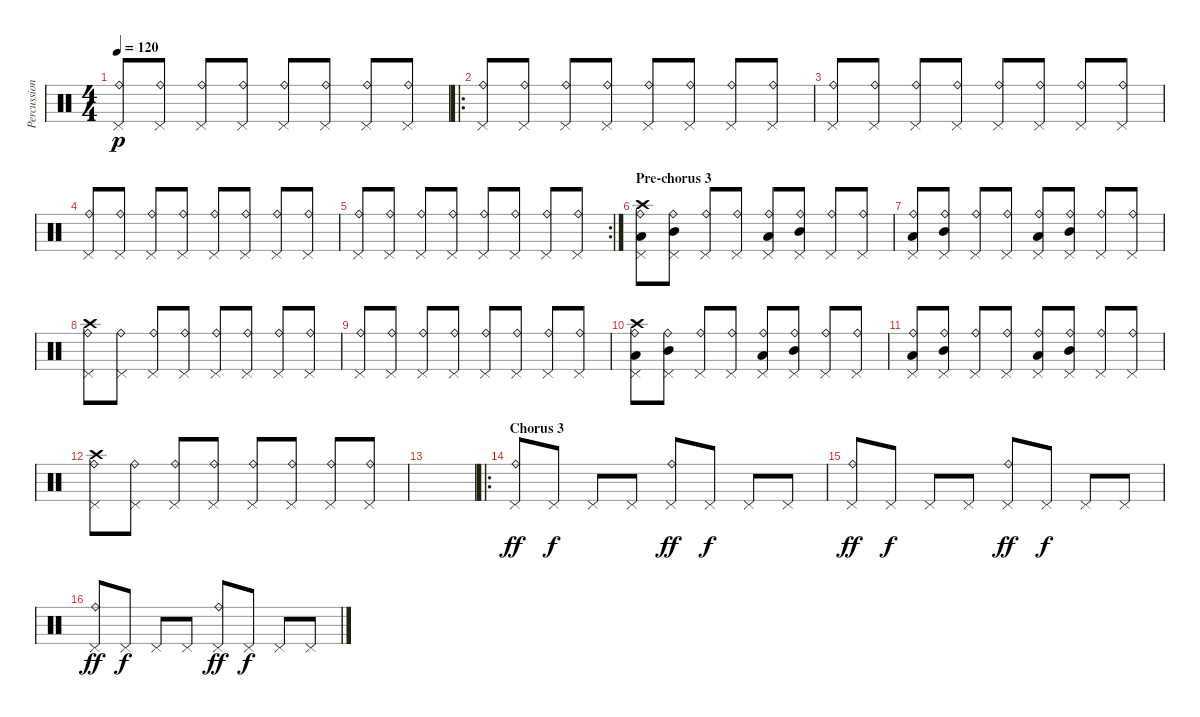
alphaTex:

\track ("Percussion 2" "Percussion") {instrument percussion}
\staff {score}
\articulation defaults
\ts (4 4)
\tempo 120
\clef neutral
\ks c
("Pedal Hi-Hat (hit)" "Ride (bell)").8{dy p} ("Pedal Hi-Hat (hit)" "Ride (bell)").8 ("Pedal Hi-Hat (hit)" "Ride (bell)").8 ("Pedal Hi-Hat (hit)" "Ride (bell)").8 ("Pedal Hi-Hat (hit)" "Ride (bell)").8 ("Pedal Hi-Hat (hit)" "Ride (bell)").8 ("Pedal Hi-Hat (hit)" "Ride (bell)").8 ("Pedal Hi-Hat (hit)" "Ride (bell)").8 |
\ro
("Pedal Hi-Hat (hit)" "Ride (bell)").8 ("Pedal Hi-Hat (hit)" "Ride (bell)").8 ("Pedal Hi-Hat (hit)" "Ride (bell)").8 ("Pedal Hi-Hat (hit)" "Ride (bell)").8 ("Pedal Hi-Hat (hit)" "Ride (bell)").8 ("Pedal Hi-Hat (hit)" "Ride (bell)").8 ("Pedal Hi-Hat (hit)" "Ride (bell)").8 ("Pedal Hi-Hat (hit)" "Ride (bell)").8 |
("Pedal Hi-Hat (hit)" "Ride (bell)").8 ("Pedal Hi-Hat (hit)" "Ride (bell)").8 ("Pedal Hi-Hat (hit)" "Ride (bell)").8 ("Pedal Hi-Hat (hit)" "Ride (bell)").8 ("Pedal Hi-Hat (hit)" "Ride (bell)").8 ("Pedal Hi-Hat (hit)" "Ride (bell)").8 ("Pedal Hi-Hat (hit)" "Ride (bell)").8 ("Pedal Hi-Hat (hit)" "Ride (bell)").8 |
("Pedal Hi-Hat (hit)" "Ride (bell)").8 ("Pedal Hi-Hat (hit)" "Ride (bell)").8 ("Pedal Hi-Hat (hit)" "Ride (bell)").8 ("Pedal Hi-Hat (hit)" "Ride (bell)").8 ("Pedal Hi-Hat (hit)" "Ride (bell)").8 ("Pedal Hi-Hat (hit)" "Ride (bell)").8 ("Pedal Hi-Hat (hit)" "Ride (bell)").8 ("Pedal Hi-Hat (hit)" "Ride (bell)").8 |
\rc 2
("Pedal Hi-Hat (hit)" "Ride (bell)").8 ("Pedal Hi-Hat (hit)" "Ride (bell)").8 ("Pedal Hi-Hat (hit)" "Ride (bell)").8 ("Pedal Hi-Hat (hit)" "Ride (bell)").8 ("Pedal Hi-Hat (hit)" "Ride (bell)").8 ("Pedal Hi-Hat (hit)" "Ride (bell)").8 ("Pedal Hi-Hat (hit)" "Ride (bell)").8 ("Pedal Hi-Hat (hit)" "Ride (bell)").8 |
\section ("" "Pre-chorus 3")
("Pedal Hi-Hat (hit)" "Ride (bell)" "Low Tom (hit)" "Crash high (hit)").8 ("Pedal Hi-Hat (hit)" "Ride (bell)" "Mid Tom (hit)").8 ("Pedal Hi-Hat (hit)" "Ride (bell)").8 ("Pedal Hi-Hat (hit)" "Ride (bell)").8 ("Pedal Hi-Hat (hit)" "Ride (bell)" "Low Tom (hit)").8 ("Pedal Hi-Hat (hit)" "Ride (bell)" "Mid Tom (hit)").8 ("Pedal Hi-Hat (hit)" "Ride (bell)").8 ("Pedal Hi-Hat (hit)" "Ride (bell)").8 |
("Pedal Hi-Hat (hit)" "Ride (bell)" "Low Tom (hit)").8 ("Pedal Hi-Hat (hit)" "Ride (bell)" "Mid Tom (hit)").8 ("Pedal Hi-Hat (hit)" "Ride (bell)").8 ("Pedal Hi-Hat (hit)" "Ride (bell)").8 ("Pedal Hi-Hat (hit)" "Ride (bell)" "Low Tom (hit)").8 ("Pedal Hi-Hat (hit)" "Ride (bell)" "Mid Tom (hit)").8 ("Pedal Hi-Hat (hit)" "Ride (bell)").8 ("Pedal Hi-Hat (hit)" "Ride (bell)").8 |
("Pedal Hi-Hat (hit)" "Ride (bell)" "Crash high (hit)").8 ("Pedal Hi-Hat (hit)" "Ride (bell)").8 ("Pedal Hi-Hat (hit)" "Ride (bell)").8 ("Pedal Hi-Hat (hit)" "Ride (bell)").8 ("Pedal Hi-Hat (hit)" "Ride (bell)").8 ("Pedal Hi-Hat (hit)" "Ride (bell)").8 ("Pedal Hi-Hat (hit)" "Ride (bell)").8 ("Pedal Hi-Hat (hit)" "Ride (bell)").8 |
("Pedal Hi-Hat (hit)" "Ride (bell)").8 ("Pedal Hi-Hat (hit)" "Ride (bell)").8 ("Pedal Hi-Hat (hit)" "Ride (bell)").8 ("Pedal Hi-Hat (hit)" "Ride (bell)").8 ("Pedal Hi-Hat (hit)" "Ride (bell)").8 ("Pedal Hi-Hat (hit)" "Ride (bell)").8 ("Pedal Hi-Hat (hit)" "Ride (bell)").8 ("Pedal Hi-Hat (hit)" "Ride (bell)").8 |
("Pedal Hi-Hat (hit)" "Ride (bell)" "Low Tom (hit)" "Crash high (hit)").8 ("Pedal Hi-Hat (hit)" "Ride (bell)" "Mid Tom (hit)").8 ("Pedal Hi-Hat (hit)" "Ride (bell)").8 ("Pedal Hi-Hat (hit)" "Ride (bell)").8 ("Pedal Hi-Hat (hit)" "Ride (bell)" "Low Tom (hit)").8 ("Pedal Hi-Hat (hit)" "Ride (bell)" "Mid Tom (hit)").8 ("Pedal Hi-Hat (hit)" "Ride (bell)").8 ("Pedal Hi-Hat (hit)" "Ride (bell)").8 |
("Pedal Hi-Hat (hit)" "Ride (bell)" "Low Tom (hit)").8 ("Pedal Hi-Hat (hit)" "Ride (bell)" "Mid Tom (hit)").8 ("Pedal Hi-Hat (hit)" "Ride (bell)").8 ("Pedal Hi-Hat (hit)" "Ride (bell)").8 ("Pedal Hi-Hat (hit)" "Ride (bell)" "Low Tom (hit)").8 ("Pedal Hi-Hat (hit)" "Ride (bell)" "Mid Tom (hit)").8 ("Pedal Hi-Hat (hit)" "Ride (bell)").8 ("Pedal Hi-Hat (hit)" "Ride (bell)").8 |
("Pedal Hi-Hat (hit)" "Ride (bell)" "Crash high (hit)").8 ("Pedal Hi-Hat (hit)" "Ride (bell)").8 ("Pedal Hi-Hat (hit)" "Ride (bell)").8 ("Pedal Hi-Hat (hit)" "Ride (bell)").8 ("Pedal Hi-Hat (hit)" "Ride (bell)").8 ("Pedal Hi-Hat (hit)" "Ride (bell)").8 ("Pedal Hi-Hat (hit)" "Ride (bell)").8 ("Pedal Hi-Hat (hit)" "Ride (bell)").8 |
|
\ro
\section ("" "Chorus 3")
("Pedal Hi-Hat (hit)" "Ride (bell)").8{dy ff} "Pedal Hi-Hat (hit)".8{dy f} "Pedal Hi-Hat (hit)".8 "Pedal Hi-Hat (hit)".8 ("Pedal Hi-Hat (hit)" "Ride (bell)").8{dy ff} "Pedal Hi-Hat (hit)".8{dy f} "Pedal Hi-Hat (hit)".8 "Pedal Hi-Hat (hit)".8 |
("Pedal Hi-Hat (hit)" "Ride (bell)").8{dy ff} "Pedal Hi-Hat (hit)".8{dy f} "Pedal Hi-Hat (hit)".8 "Pedal Hi-Hat (hit)".8 ("Pedal Hi-Hat (hit)" "Ride (bell)").8{dy ff} "Pedal Hi-Hat (hit)".8{dy f} "Pedal Hi-Hat (hit)".8 "Pedal Hi-Hat (hit)".8 |
("Pedal Hi-Hat (hit)" "Ride (bell)").8{dy ff} "Pedal Hi-Hat (hit)".8{dy f} "Pedal Hi-Hat (hit)".8 "Pedal Hi-Hat (hit)".8 ("Pedal Hi-Hat (hit)" "Ride (bell)").8{dy ff} "Pedal Hi-Hat (hit)".8{dy f} "Pedal Hi-Hat (hit)".8 "Pedal Hi-Hat (hit)".8
